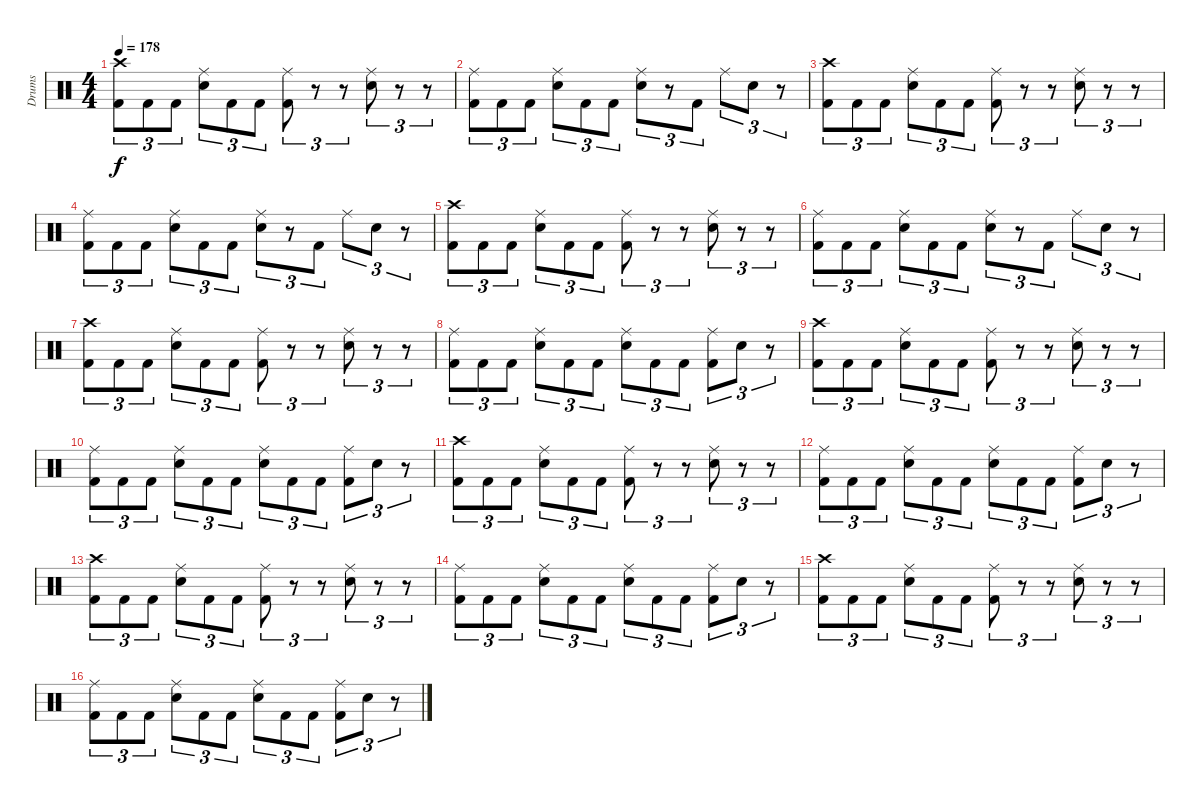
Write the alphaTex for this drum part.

\track ("Drums" "Drums") {instrument percussion}
\staff {score}
\articulation defaults
\ts (4 4)
\tempo 178
\clef neutral
\ks c
("Crash high (hit)" "Kick (hit) 2").8{tu (3 2) dy f} "Kick (hit) 2".8{tu (3 2)} "Kick (hit) 2".8{tu (3 2)} ("Ride (middle)" "Snare (hit) 2").8{tu (3 2)} "Kick (hit) 2".8{tu (3 2)} "Kick (hit) 2".8{tu (3 2)} ("Ride (middle)" "Kick (hit) 2").8{tu (3 2)} r.8{tu (3 2)} r.8{tu (3 2)} ("Ride (middle)" "Snare (hit) 2").8{tu (3 2)} r.8{tu (3 2)} r.8{tu (3 2)} |
("Ride (middle)" "Kick (hit) 2").8{tu (3 2)} "Kick (hit) 2".8{tu (3 2)} "Kick (hit) 2".8{tu (3 2)} ("Ride (middle)" "Snare (hit) 2").8{tu (3 2)} "Kick (hit) 2".8{tu (3 2)} "Kick (hit) 2".8{tu (3 2)} ("Ride (middle)" "Snare (hit) 2").8{tu (3 2)} r.8{tu (3 2)} "Kick (hit) 2".8{tu (3 2)} "Ride (middle)".8{tu (3 2)} "Snare (hit) 2".8{tu (3 2)} r.8{tu (3 2)} |
("Crash high (hit)" "Kick (hit) 2").8{tu (3 2)} "Kick (hit) 2".8{tu (3 2)} "Kick (hit) 2".8{tu (3 2)} ("Ride (middle)" "Snare (hit) 2").8{tu (3 2)} "Kick (hit) 2".8{tu (3 2)} "Kick (hit) 2".8{tu (3 2)} ("Ride (middle)" "Kick (hit) 2").8{tu (3 2)} r.8{tu (3 2)} r.8{tu (3 2)} ("Ride (middle)" "Snare (hit) 2").8{tu (3 2)} r.8{tu (3 2)} r.8{tu (3 2)} |
("Ride (middle)" "Kick (hit) 2").8{tu (3 2)} "Kick (hit) 2".8{tu (3 2)} "Kick (hit) 2".8{tu (3 2)} ("Ride (middle)" "Snare (hit) 2").8{tu (3 2)} "Kick (hit) 2".8{tu (3 2)} "Kick (hit) 2".8{tu (3 2)} ("Ride (middle)" "Snare (hit) 2").8{tu (3 2)} r.8{tu (3 2)} "Kick (hit) 2".8{tu (3 2)} "Ride (middle)".8{tu (3 2)} "Snare (hit) 2".8{tu (3 2)} r.8{tu (3 2)} |
("Crash high (hit)" "Kick (hit) 2").8{tu (3 2)} "Kick (hit) 2".8{tu (3 2)} "Kick (hit) 2".8{tu (3 2)} ("Ride (middle)" "Snare (hit) 2").8{tu (3 2)} "Kick (hit) 2".8{tu (3 2)} "Kick (hit) 2".8{tu (3 2)} ("Ride (middle)" "Kick (hit) 2").8{tu (3 2)} r.8{tu (3 2)} r.8{tu (3 2)} ("Ride (middle)" "Snare (hit) 2").8{tu (3 2)} r.8{tu (3 2)} r.8{tu (3 2)} |
("Ride (middle)" "Kick (hit) 2").8{tu (3 2)} "Kick (hit) 2".8{tu (3 2)} "Kick (hit) 2".8{tu (3 2)} ("Ride (middle)" "Snare (hit) 2").8{tu (3 2)} "Kick (hit) 2".8{tu (3 2)} "Kick (hit) 2".8{tu (3 2)} ("Ride (middle)" "Snare (hit) 2").8{tu (3 2)} r.8{tu (3 2)} "Kick (hit) 2".8{tu (3 2)} "Ride (middle)".8{tu (3 2)} "Snare (hit) 2".8{tu (3 2)} r.8{tu (3 2)} |
("Crash high (hit)" "Kick (hit) 2").8{tu (3 2)} "Kick (hit) 2".8{tu (3 2)} "Kick (hit) 2".8{tu (3 2)} ("Ride (middle)" "Snare (hit) 2").8{tu (3 2)} "Kick (hit) 2".8{tu (3 2)} "Kick (hit) 2".8{tu (3 2)} ("Ride (middle)" "Kick (hit) 2").8{tu (3 2)} r.8{tu (3 2)} r.8{tu (3 2)} ("Ride (middle)" "Snare (hit) 2").8{tu (3 2)} r.8{tu (3 2)} r.8{tu (3 2)} |
("Ride (middle)" "Kick (hit) 2").8{tu (3 2)} "Kick (hit) 2".8{tu (3 2)} "Kick (hit) 2".8{tu (3 2)} ("Ride (middle)" "Snare (hit) 2").8{tu (3 2)} "Kick (hit) 2".8{tu (3 2)} "Kick (hit) 2".8{tu (3 2)} ("Ride (middle)" "Snare (hit) 2").8{tu (3 2)} "Kick (hit) 2".8{tu (3 2)} "Kick (hit) 2".8{tu (3 2)} ("Ride (middle)" "Kick (hit) 2").8{tu (3 2)} "Snare (hit) 2".8{tu (3 2)} r.8{tu (3 2)} |
("Crash high (hit)" "Kick (hit) 2").8{tu (3 2)} "Kick (hit) 2".8{tu (3 2)} "Kick (hit) 2".8{tu (3 2)} ("Ride (middle)" "Snare (hit) 2").8{tu (3 2)} "Kick (hit) 2".8{tu (3 2)} "Kick (hit) 2".8{tu (3 2)} ("Ride (middle)" "Kick (hit) 2").8{tu (3 2)} r.8{tu (3 2)} r.8{tu (3 2)} ("Ride (middle)" "Snare (hit) 2").8{tu (3 2)} r.8{tu (3 2)} r.8{tu (3 2)} |
("Ride (middle)" "Kick (hit) 2").8{tu (3 2)} "Kick (hit) 2".8{tu (3 2)} "Kick (hit) 2".8{tu (3 2)} ("Ride (middle)" "Snare (hit) 2").8{tu (3 2)} "Kick (hit) 2".8{tu (3 2)} "Kick (hit) 2".8{tu (3 2)} ("Ride (middle)" "Snare (hit) 2").8{tu (3 2)} "Kick (hit) 2".8{tu (3 2)} "Kick (hit) 2".8{tu (3 2)} ("Ride (middle)" "Kick (hit) 2").8{tu (3 2)} "Snare (hit) 2".8{tu (3 2)} r.8{tu (3 2)} |
("Crash high (hit)" "Kick (hit) 2").8{tu (3 2)} "Kick (hit) 2".8{tu (3 2)} "Kick (hit) 2".8{tu (3 2)} ("Ride (middle)" "Snare (hit) 2").8{tu (3 2)} "Kick (hit) 2".8{tu (3 2)} "Kick (hit) 2".8{tu (3 2)} ("Ride (middle)" "Kick (hit) 2").8{tu (3 2)} r.8{tu (3 2)} r.8{tu (3 2)} ("Ride (middle)" "Snare (hit) 2").8{tu (3 2)} r.8{tu (3 2)} r.8{tu (3 2)} |
("Ride (middle)" "Kick (hit) 2").8{tu (3 2)} "Kick (hit) 2".8{tu (3 2)} "Kick (hit) 2".8{tu (3 2)} ("Ride (middle)" "Snare (hit) 2").8{tu (3 2)} "Kick (hit) 2".8{tu (3 2)} "Kick (hit) 2".8{tu (3 2)} ("Ride (middle)" "Snare (hit) 2").8{tu (3 2)} "Kick (hit) 2".8{tu (3 2)} "Kick (hit) 2".8{tu (3 2)} ("Ride (middle)" "Kick (hit) 2").8{tu (3 2)} "Snare (hit) 2".8{tu (3 2)} r.8{tu (3 2)} |
("Crash high (hit)" "Kick (hit) 2").8{tu (3 2)} "Kick (hit) 2".8{tu (3 2)} "Kick (hit) 2".8{tu (3 2)} ("Ride (middle)" "Snare (hit) 2").8{tu (3 2)} "Kick (hit) 2".8{tu (3 2)} "Kick (hit) 2".8{tu (3 2)} ("Ride (middle)" "Kick (hit) 2").8{tu (3 2)} r.8{tu (3 2)} r.8{tu (3 2)} ("Ride (middle)" "Snare (hit) 2").8{tu (3 2)} r.8{tu (3 2)} r.8{tu (3 2)} |
("Ride (middle)" "Kick (hit) 2").8{tu (3 2)} "Kick (hit) 2".8{tu (3 2)} "Kick (hit) 2".8{tu (3 2)} ("Ride (middle)" "Snare (hit) 2").8{tu (3 2)} "Kick (hit) 2".8{tu (3 2)} "Kick (hit) 2".8{tu (3 2)} ("Ride (middle)" "Snare (hit) 2").8{tu (3 2)} "Kick (hit) 2".8{tu (3 2)} "Kick (hit) 2".8{tu (3 2)} ("Ride (middle)" "Kick (hit) 2").8{tu (3 2)} "Snare (hit) 2".8{tu (3 2)} r.8{tu (3 2)} |
("Crash high (hit)" "Kick (hit) 2").8{tu (3 2)} "Kick (hit) 2".8{tu (3 2)} "Kick (hit) 2".8{tu (3 2)} ("Ride (middle)" "Snare (hit) 2").8{tu (3 2)} "Kick (hit) 2".8{tu (3 2)} "Kick (hit) 2".8{tu (3 2)} ("Ride (middle)" "Kick (hit) 2").8{tu (3 2)} r.8{tu (3 2)} r.8{tu (3 2)} ("Ride (middle)" "Snare (hit) 2").8{tu (3 2)} r.8{tu (3 2)} r.8{tu (3 2)} |
("Ride (middle)" "Kick (hit) 2").8{tu (3 2)} "Kick (hit) 2".8{tu (3 2)} "Kick (hit) 2".8{tu (3 2)} ("Ride (middle)" "Snare (hit) 2").8{tu (3 2)} "Kick (hit) 2".8{tu (3 2)} "Kick (hit) 2".8{tu (3 2)} ("Ride (middle)" "Snare (hit) 2").8{tu (3 2)} "Kick (hit) 2".8{tu (3 2)} "Kick (hit) 2".8{tu (3 2)} ("Ride (middle)" "Kick (hit) 2").8{tu (3 2)} "Snare (hit) 2".8{tu (3 2)} r.8{tu (3 2)}
